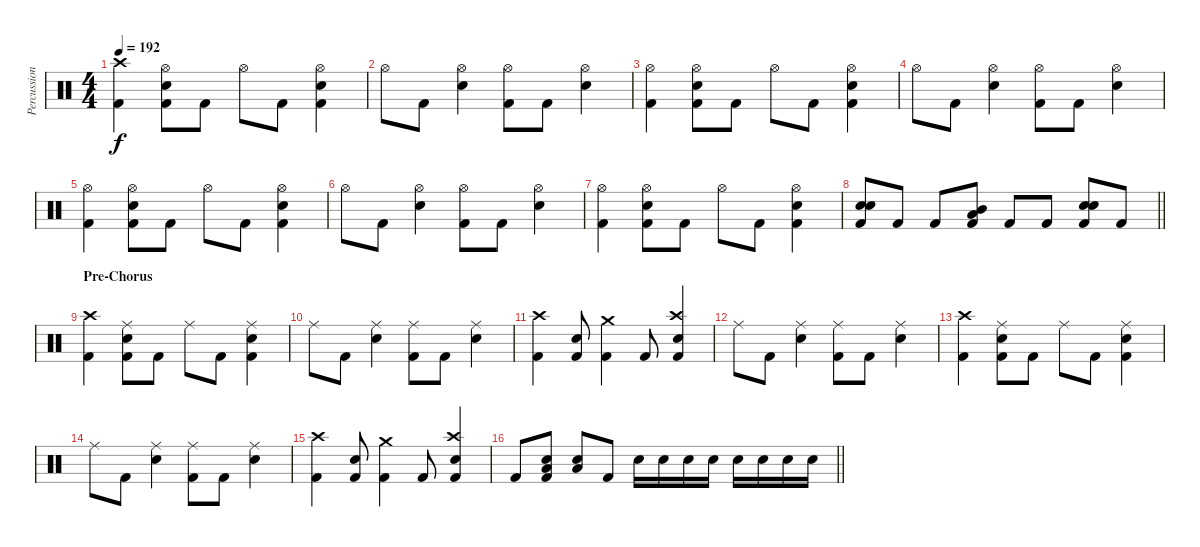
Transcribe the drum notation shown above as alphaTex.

\track ("Percussion" "Percussion") {instrument percussion}
\staff {score}
\articulation defaults
\ts (4 4)
\tempo 192
\clef neutral
\ks aminor
("Kick (hit) 2" "Crash high (hit)").4{dy f} ("Kick (hit) 2" "Snare (hit) 2" "Hi-Hat (open)").8 "Kick (hit) 2".8 "Hi-Hat (open)".8 "Kick (hit) 2".8 ("Kick (hit) 2" "Snare (hit) 2" "Hi-Hat (open)").4 |
"Hi-Hat (open)".8 "Kick (hit) 2".8 ("Snare (hit) 2" "Hi-Hat (open)").4 ("Kick (hit) 2" "Hi-Hat (open)").8 "Kick (hit) 2".8 ("Snare (hit) 2" "Hi-Hat (open)").4 |
("Kick (hit) 2" "Hi-Hat (open)").4 ("Kick (hit) 2" "Snare (hit) 2" "Hi-Hat (open)").8 "Kick (hit) 2".8 "Hi-Hat (open)".8 "Kick (hit) 2".8 ("Kick (hit) 2" "Snare (hit) 2" "Hi-Hat (open)").4 |
"Hi-Hat (open)".8 "Kick (hit) 2".8 ("Snare (hit) 2" "Hi-Hat (open)").4 ("Kick (hit) 2" "Hi-Hat (open)").8 "Kick (hit) 2".8 ("Snare (hit) 2" "Hi-Hat (open)").4 |
("Kick (hit) 2" "Hi-Hat (open)").4 ("Kick (hit) 2" "Snare (hit) 2" "Hi-Hat (open)").8 "Kick (hit) 2".8 "Hi-Hat (open)".8 "Kick (hit) 2".8 ("Kick (hit) 2" "Snare (hit) 2" "Hi-Hat (open)").4 |
"Hi-Hat (open)".8 "Kick (hit) 2".8 ("Snare (hit) 2" "Hi-Hat (open)").4 ("Kick (hit) 2" "Hi-Hat (open)").8 "Kick (hit) 2".8 ("Snare (hit) 2" "Hi-Hat (open)").4 |
("Kick (hit) 2" "Hi-Hat (open)").4 ("Kick (hit) 2" "Snare (hit) 2" "Hi-Hat (open)").8 "Kick (hit) 2".8 "Hi-Hat (open)".8 "Kick (hit) 2".8 ("Kick (hit) 2" "Snare (hit) 2" "Hi-Hat (open)").4 |
\barLineRight lightlight
("Kick (hit) 2" "Snare (hit) 2" "Snare (hit) 2").8 "Kick (hit) 2".8 "Kick (hit) 2".8 ("Kick (hit) 2" "Mid Tom (hit)" "Low Floor Tom (hit)").8 "Kick (hit) 2".8 "Kick (hit) 2".8 ("Kick (hit) 2" "Snare (hit) 2" "Snare (hit) 2").8 "Kick (hit) 2".8 |
\section ("" "Pre-Chorus")
("Kick (hit) 2" "Crash high (hit)").4 ("Kick (hit) 2" "Snare (hit) 2" "Ride (middle)").8 "Kick (hit) 2".8 "Ride (middle)".8 "Kick (hit) 2".8 ("Kick (hit) 2" "Snare (hit) 2" "Ride (middle)").4 |
"Ride (middle)".8 "Kick (hit) 2".8 ("Snare (hit) 2" "Ride (middle)").4 ("Kick (hit) 2" "Ride (middle)").8 "Kick (hit) 2".8 ("Snare (hit) 2" "Ride (middle)").4 |
("Kick (hit) 2" "Crash high (hit)").4 ("Kick (hit) 2" "Snare (hit) 2").8 ("Kick (hit) 2" "Crash medium (hit)").4 "Kick (hit) 2".8 ("Kick (hit) 2" "Snare (hit) 2" "Crash high (hit)").4 |
"Ride (middle)".8 "Kick (hit) 2".8 ("Snare (hit) 2" "Ride (middle)").4 ("Kick (hit) 2" "Ride (middle)").8 "Kick (hit) 2".8 ("Snare (hit) 2" "Ride (middle)").4 |
("Kick (hit) 2" "Crash high (hit)").4 ("Kick (hit) 2" "Snare (hit) 2" "Ride (middle)").8 "Kick (hit) 2".8 "Ride (middle)".8 "Kick (hit) 2".8 ("Kick (hit) 2" "Snare (hit) 2" "Ride (middle)").4 |
"Ride (middle)".8 "Kick (hit) 2".8 ("Snare (hit) 2" "Ride (middle)").4 ("Kick (hit) 2" "Ride (middle)").8 "Kick (hit) 2".8 ("Snare (hit) 2" "Ride (middle)").4 |
("Kick (hit) 2" "Crash high (hit)").4 ("Kick (hit) 2" "Snare (hit) 2").8 ("Kick (hit) 2" "Crash medium (hit)").4 "Kick (hit) 2".8 ("Kick (hit) 2" "Snare (hit) 2" "Crash high (hit)").4 |
\barLineRight lightlight "Kick (hit) 2".8
("Kick (hit) 2" "Snare (hit) 2" "Low Floor Tom (hit)").8 ("Snare (hit) 2" "Low Floor Tom (hit)").8 "Kick (hit) 2".8 "Snare (hit) 2".16 "Snare (hit) 2".16 "Snare (hit) 2".16 "Snare (hit) 2".16 "Snare (hit) 2".16 "Snare (hit) 2".16 "Snare (hit) 2".16 "Snare (hit) 2".16
